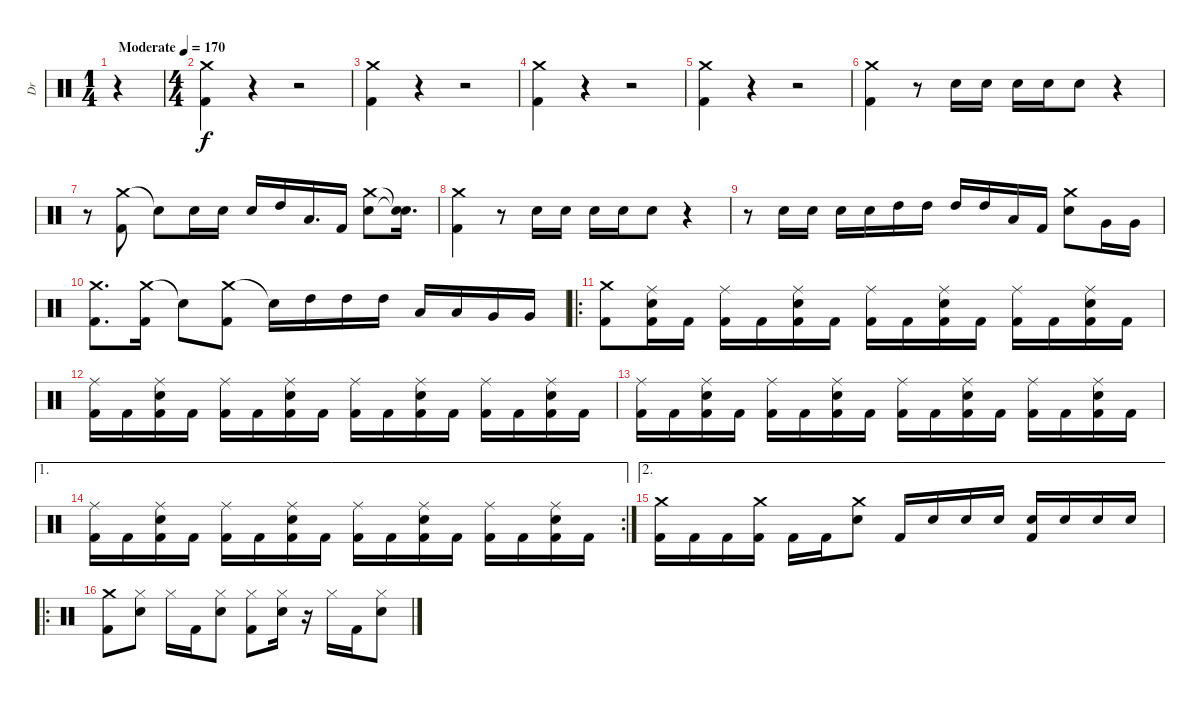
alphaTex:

\track ("Dr" "Dr") {instrument percussion}
\staff {score}
\articulation defaults
\ts (1 4)
\tempo (170 "Moderate")
\clef neutral
\ks c
r.4{dy f} |
\ts (4 4)
("Crash medium (hit)" "Kick (hit) 2").4 r.4 r.2 |
("Crash medium (hit)" "Kick (hit) 2").4 r.4 r.2 |
("Crash medium (hit)" "Kick (hit) 2").4 r.4 r.2 |
("Crash medium (hit)" "Kick (hit) 2").4 r.4 r.2 |
("Crash medium (hit)" "Kick (hit) 2").4 r.8 "Electric Snare (hit)".16 "Electric Snare (hit)".16 "Electric Snare (hit)".16 "Electric Snare (hit)".16 "Electric Snare (hit)".8 r.4 |
r.8 ("Crash medium (hit)" "Kick (hit) 2").8 "Snare (hit)"{t}.8 "Electric Snare (hit)".16 "Electric Snare (hit)".16 "Electric Snare (hit)".16 "High Tom (hit)".16 "Low Tom (hit)".16{d} "Kick (hit) 2".16 ("Crash medium (hit)" "Electric Snare (hit)").8 ("Snare (hit)"{t} "Snare (hit)"{t}).16{d} |
("Crash medium (hit)" "Kick (hit) 2").4 r.8 "Electric Snare (hit)".16 "Electric Snare (hit)".16 "Electric Snare (hit)".16 "Electric Snare (hit)".16 "Electric Snare (hit)".8 r.4 |
r.8 "Electric Snare (hit)".16 "Electric Snare (hit)".16 "Electric Snare (hit)".16 "Electric Snare (hit)".16 "High Tom (hit)".16 "High Tom (hit)".16 "High Tom (hit)".16 "High Tom (hit)".16 "Low Tom (hit)".16 "Kick (hit) 2".16 ("Crash medium (hit)" "Electric Snare (hit)").8 "Very Low Tom (hit)".16 "Very Low Tom (hit)".16 |
("Crash medium (hit)" "Kick (hit) 2").8{d} ("Crash medium (hit)" "Kick (hit) 2").16 "Snare (hit)"{t}.8 ("Crash medium (hit)" "Kick (hit) 2").8 "Snare (hit)"{t}.16 "High Tom (hit)".16 "High Tom (hit)".16 "High Tom (hit)".16 "Low Tom (hit)".16 "Low Tom (hit)".16 "Very Low Tom (hit)".16 "Very Low Tom (hit)".16 |
\ro
("Crash medium (hit)" "Kick (hit) 2").8 ("Ride (middle)" "Electric Snare (hit)" "Kick (hit) 2").16 "Kick (hit) 2".16 ("Ride (middle)" "Kick (hit) 2").16 "Kick (hit) 2".16 ("Ride (middle)" "Electric Snare (hit)" "Kick (hit) 2").16 "Kick (hit) 2".16 ("Ride (middle)" "Kick (hit) 2").16 "Kick (hit) 2".16 ("Ride (middle)" "Electric Snare (hit)" "Kick (hit) 2").16 "Kick (hit) 2".16 ("Ride (middle)" "Kick (hit) 2").16 "Kick (hit) 2".16 ("Ride (middle)" "Electric Snare (hit)" "Kick (hit) 2").16 "Kick (hit) 2".16 |
("Ride (middle)" "Kick (hit) 2").16 "Kick (hit) 2".16 ("Ride (middle)" "Electric Snare (hit)" "Kick (hit) 2").16 "Kick (hit) 2".16 ("Ride (middle)" "Kick (hit) 2").16 "Kick (hit) 2".16 ("Ride (middle)" "Electric Snare (hit)" "Kick (hit) 2").16 "Kick (hit) 2".16 ("Ride (middle)" "Kick (hit) 2").16 "Kick (hit) 2".16 ("Ride (middle)" "Electric Snare (hit)" "Kick (hit) 2").16 "Kick (hit) 2".16 ("Ride (middle)" "Kick (hit) 2").16 "Kick (hit) 2".16 ("Ride (middle)" "Electric Snare (hit)" "Kick (hit) 2").16 "Kick (hit) 2".16 |
("Ride (middle)" "Kick (hit) 2").16 "Kick (hit) 2".16 ("Ride (middle)" "Electric Snare (hit)" "Kick (hit) 2").16 "Kick (hit) 2".16 ("Ride (middle)" "Kick (hit) 2").16 "Kick (hit) 2".16 ("Ride (middle)" "Electric Snare (hit)" "Kick (hit) 2").16 "Kick (hit) 2".16 ("Ride (middle)" "Kick (hit) 2").16 "Kick (hit) 2".16 ("Ride (middle)" "Electric Snare (hit)" "Kick (hit) 2").16 "Kick (hit) 2".16 ("Ride (middle)" "Kick (hit) 2").16 "Kick (hit) 2".16 ("Ride (middle)" "Electric Snare (hit)" "Kick (hit) 2").16 "Kick (hit) 2".16 |
\ae 1
\rc 2
("Ride (middle)" "Kick (hit) 2").16 "Kick (hit) 2".16 ("Ride (middle)" "Electric Snare (hit)" "Kick (hit) 2").16 "Kick (hit) 2".16 ("Ride (middle)" "Kick (hit) 2").16 "Kick (hit) 2".16 ("Ride (middle)" "Electric Snare (hit)" "Kick (hit) 2").16 "Kick (hit) 2".16 ("Ride (middle)" "Kick (hit) 2").16 "Kick (hit) 2".16 ("Ride (middle)" "Electric Snare (hit)" "Kick (hit) 2").16 "Kick (hit) 2".16 ("Ride (middle)" "Kick (hit) 2").16 "Kick (hit) 2".16 ("Ride (middle)" "Electric Snare (hit)" "Kick (hit) 2").16 "Kick (hit) 2".16 |
\ae 2
("Crash medium (hit)" "Kick (hit) 2").16 "Kick (hit) 2".16 "Kick (hit) 2".16 ("Crash medium (hit)" "Kick (hit) 2").16 "Kick (hit) 2".16 "Kick (hit) 2".16 ("Crash medium (hit)" "Electric Snare (hit)").8 "Kick (hit) 2".16 "Electric Snare (hit)".16 "Electric Snare (hit)".16 "Electric Snare (hit)".16 ("Electric Snare (hit)" "Kick (hit) 2").16 "Electric Snare (hit)".16 "Electric Snare (hit)".16 "Electric Snare (hit)".16 |
\ro
("Crash medium (hit)" "Kick (hit) 2").8 ("Hi-Hat (closed)" "Electric Snare (hit)").8 "Hi-Hat (closed)".16 "Kick (hit) 2".16 ("Hi-Hat (closed)" "Electric Snare (hit)").8 ("Hi-Hat (closed)" "Kick (hit) 2").8 ("Hi-Hat (closed)" "Electric Snare (hit)").16 r.16 "Hi-Hat (closed)".16 "Kick (hit) 2".16 ("Hi-Hat (closed)" "Electric Snare (hit)").8
